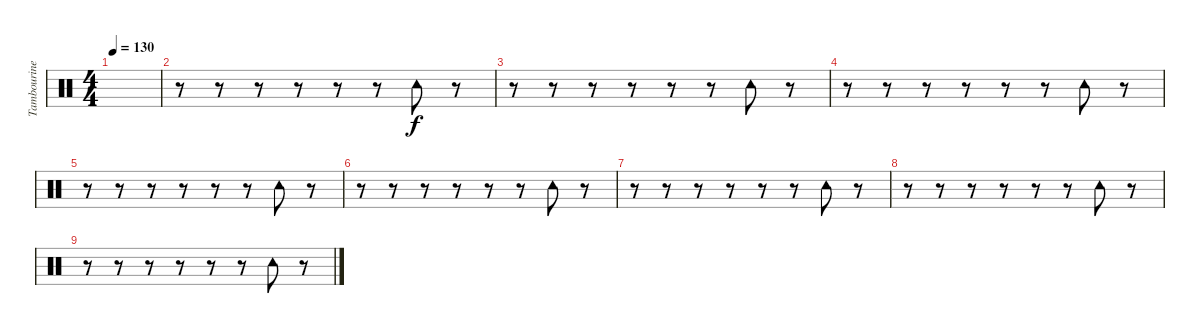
\track ("Tambourine" "Tambourine") {instrument percussion}
\staff {score}
\articulation defaults
\ts (4 4)
\tempo 130
\clef neutral
\ks c
|
r.8 r.8 r.8 r.8 r.8 r.8 "Tambourine (hit)".8 r.8 |
r.8 r.8 r.8 r.8 r.8 r.8 "Tambourine (hit)".8 r.8 |
r.8 r.8 r.8 r.8 r.8 r.8 "Tambourine (hit)".8 r.8 |
r.8 r.8 r.8 r.8 r.8 r.8 "Tambourine (hit)".8 r.8 |
r.8 r.8 r.8 r.8 r.8 r.8 "Tambourine (hit)".8 r.8 |
r.8 r.8 r.8 r.8 r.8 r.8 "Tambourine (hit)".8 r.8 |
r.8 r.8 r.8 r.8 r.8 r.8 "Tambourine (hit)".8 r.8 |
r.8 r.8 r.8 r.8 r.8 r.8 "Tambourine (hit)".8 r.8
